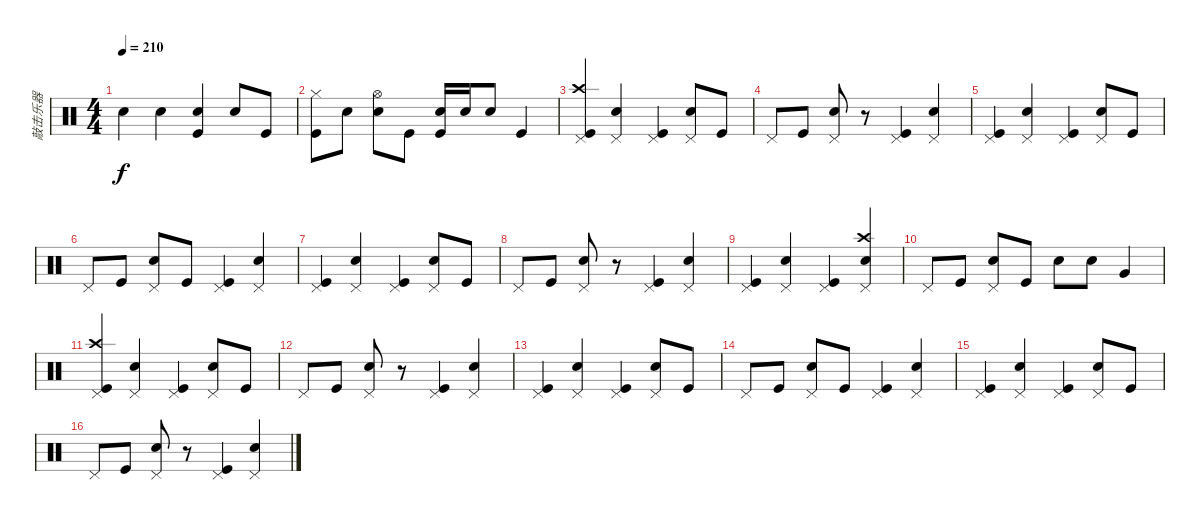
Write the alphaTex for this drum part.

\track ("敲击乐器" "敲击乐器") {instrument percussion}
\staff {score}
\articulation defaults
\ts (4 4)
\tempo 210
\clef neutral
\ks c "Snare (hit) 2".4{dy f} "Snare (hit) 2".4
("Snare (hit) 2" "Kick (hit)").4 "Snare (hit) 2".8 "Kick (hit)".8 |
("Hi-Hat (closed)" "Kick (hit)").8 "Snare (hit) 2".8 ("Hi-Hat (open)" "Snare (hit) 2").8 "Kick (hit)".8 ("Snare (hit) 2" "Kick (hit)").16 "Snare (hit) 2".16 "Snare (hit) 2".8 "Kick (hit)".4 |
("Crash high (hit)" "Pedal Hi-Hat (hit)" "Kick (hit)").4 ("Pedal Hi-Hat (hit)" "Snare (hit) 2").4 ("Pedal Hi-Hat (hit)" "Kick (hit)").4 ("Pedal Hi-Hat (hit)" "Snare (hit) 2").8 "Kick (hit)".8 |
"Pedal Hi-Hat (hit)".8 "Kick (hit)".8 ("Pedal Hi-Hat (hit)" "Snare (hit) 2").8 r.8 ("Kick (hit)" "Pedal Hi-Hat (hit)").4 ("Snare (hit) 2" "Pedal Hi-Hat (hit)").4 |
("Pedal Hi-Hat (hit)" "Kick (hit)").4 ("Pedal Hi-Hat (hit)" "Snare (hit) 2").4 ("Pedal Hi-Hat (hit)" "Kick (hit)").4 ("Pedal Hi-Hat (hit)" "Snare (hit) 2").8 "Kick (hit)".8 |
"Pedal Hi-Hat (hit)".8 "Kick (hit)".8 ("Pedal Hi-Hat (hit)" "Snare (hit) 2").8 "Kick (hit)".8 ("Kick (hit)" "Pedal Hi-Hat (hit)").4 ("Snare (hit) 2" "Pedal Hi-Hat (hit)").4 |
("Pedal Hi-Hat (hit)" "Kick (hit)").4 ("Pedal Hi-Hat (hit)" "Snare (hit) 2").4 ("Pedal Hi-Hat (hit)" "Kick (hit)").4 ("Pedal Hi-Hat (hit)" "Snare (hit) 2").8 "Kick (hit)".8 |
"Pedal Hi-Hat (hit)".8 "Kick (hit)".8 ("Pedal Hi-Hat (hit)" "Snare (hit) 2").8 r.8 ("Kick (hit)" "Pedal Hi-Hat (hit)").4 ("Snare (hit) 2" "Pedal Hi-Hat (hit)").4 |
("Pedal Hi-Hat (hit)" "Kick (hit)").4 ("Pedal Hi-Hat (hit)" "Snare (hit) 2").4 ("Pedal Hi-Hat (hit)" "Kick (hit)").4 ("Crash high (hit)" "Pedal Hi-Hat (hit)" "Snare (hit) 2").4 |
"Pedal Hi-Hat (hit)".8 "Kick (hit)".8 ("Pedal Hi-Hat (hit)" "Snare (hit) 2").8 "Kick (hit)".8 "Snare (hit) 2".8 "Snare (hit) 2".8 "Very Low Tom (hit)".4 |
("Crash high (hit)" "Pedal Hi-Hat (hit)" "Kick (hit)").4 ("Pedal Hi-Hat (hit)" "Snare (hit) 2").4 ("Pedal Hi-Hat (hit)" "Kick (hit)").4 ("Pedal Hi-Hat (hit)" "Snare (hit) 2").8 "Kick (hit)".8 |
"Pedal Hi-Hat (hit)".8 "Kick (hit)".8 ("Pedal Hi-Hat (hit)" "Snare (hit) 2").8 r.8 ("Kick (hit)" "Pedal Hi-Hat (hit)").4 ("Snare (hit) 2" "Pedal Hi-Hat (hit)").4 |
("Pedal Hi-Hat (hit)" "Kick (hit)").4 ("Pedal Hi-Hat (hit)" "Snare (hit) 2").4 ("Pedal Hi-Hat (hit)" "Kick (hit)").4 ("Pedal Hi-Hat (hit)" "Snare (hit) 2").8 "Kick (hit)".8 |
"Pedal Hi-Hat (hit)".8 "Kick (hit)".8 ("Pedal Hi-Hat (hit)" "Snare (hit) 2").8 "Kick (hit)".8 ("Kick (hit)" "Pedal Hi-Hat (hit)").4 ("Snare (hit) 2" "Pedal Hi-Hat (hit)").4 |
("Pedal Hi-Hat (hit)" "Kick (hit)").4 ("Pedal Hi-Hat (hit)" "Snare (hit) 2").4 ("Pedal Hi-Hat (hit)" "Kick (hit)").4 ("Pedal Hi-Hat (hit)" "Snare (hit) 2").8 "Kick (hit)".8 |
"Pedal Hi-Hat (hit)".8 "Kick (hit)".8 ("Pedal Hi-Hat (hit)" "Snare (hit) 2").8 r.8 ("Kick (hit)" "Pedal Hi-Hat (hit)").4 ("Snare (hit) 2" "Pedal Hi-Hat (hit)").4
